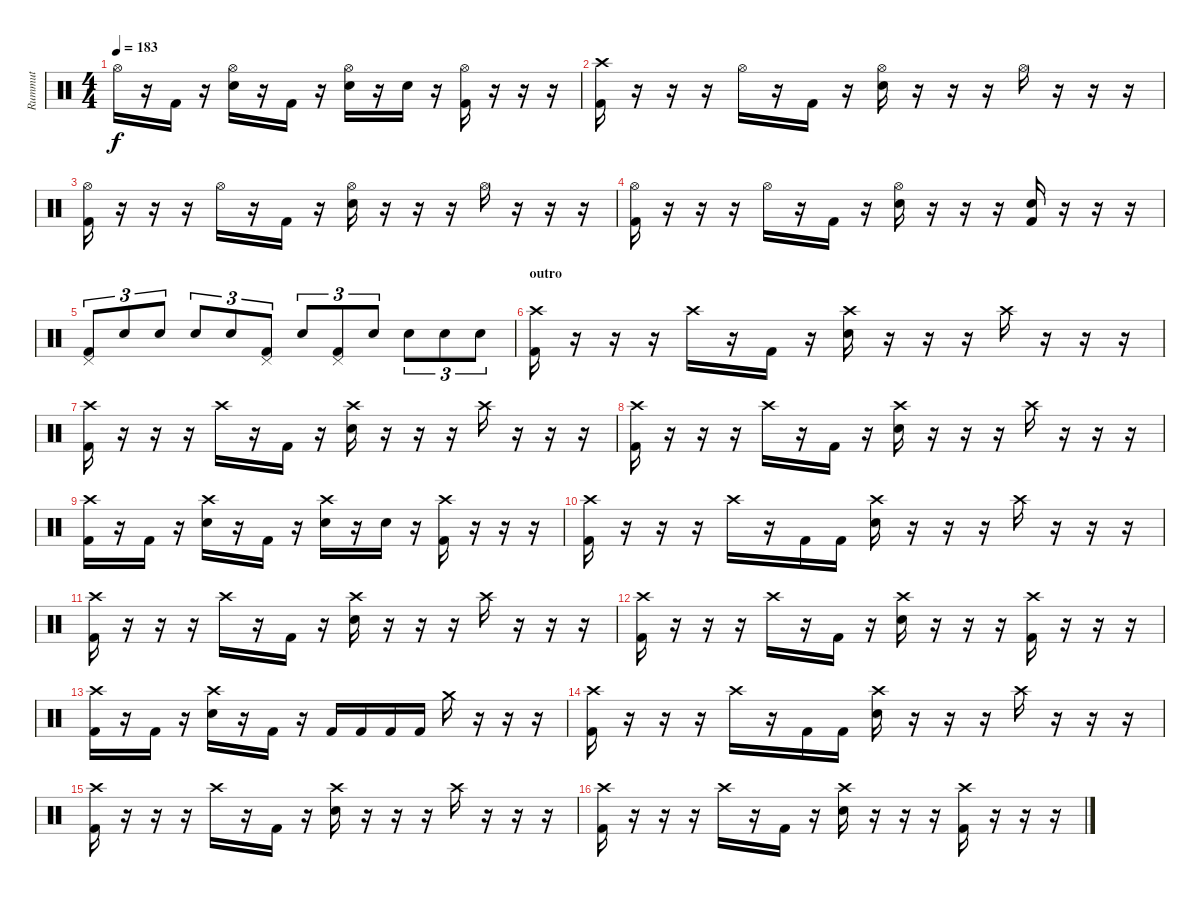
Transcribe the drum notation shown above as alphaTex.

\track ("Rummut" "Rummut") {instrument percussion}
\staff {score}
\articulation defaults
\ts (4 4)
\tempo 183
\clef neutral
\ks c "Hi-Hat (open)".16{dy f}
r.16 "Kick (hit) 2".16 r.16 ("Hi-Hat (open)" "Electric Snare (hit)").16 r.16 "Kick (hit) 2".16 r.16 ("Hi-Hat (open)" "Electric Snare (hit)").16 r.16 "Electric Snare (hit)".16 r.16 ("Hi-Hat (open)" "Kick (hit) 2").16 r.16 r.16 r.16 |
("Crash high (hit)" "Kick (hit) 2").16 r.16 r.16 r.16 "Hi-Hat (open)".16 r.16 "Kick (hit) 2".16 r.16 ("Hi-Hat (open)" "Electric Snare (hit)").16 r.16 r.16 r.16 "Hi-Hat (open)".16 r.16 r.16 r.16 |
("Hi-Hat (open)" "Kick (hit) 2").16 r.16 r.16 r.16 "Hi-Hat (open)".16 r.16 "Kick (hit) 2".16 r.16 ("Hi-Hat (open)" "Electric Snare (hit)").16 r.16 r.16 r.16 "Hi-Hat (open)".16 r.16 r.16 r.16 |
("Hi-Hat (open)" "Kick (hit) 2").16 r.16 r.16 r.16 "Hi-Hat (open)".16 r.16 "Kick (hit) 2".16 r.16 ("Hi-Hat (open)" "Electric Snare (hit)").16 r.16 r.16 r.16 ("Electric Snare (hit)" "Kick (hit) 2").16 r.16 r.16 r.16 |
("Pedal Hi-Hat (hit)" "Kick (hit) 2").8{tu (3 2)} "Electric Snare (hit)".8{tu (3 2)} "Electric Snare (hit)".8{tu (3 2)} "Electric Snare (hit)".8{tu (3 2)} "Electric Snare (hit)".8{tu (3 2)} ("Pedal Hi-Hat (hit)" "Kick (hit) 2").8{tu (3 2)} "Electric Snare (hit)".8{tu (3 2)} ("Pedal Hi-Hat (hit)" "Kick (hit) 2").8{tu (3 2)} "Electric Snare (hit)".8{tu (3 2)} "Electric Snare (hit)".8{tu (3 2)} "Electric Snare (hit)".8{tu (3 2)} "Electric Snare (hit)".8{tu (3 2)} |
\section ("" "outro")
("Crash high (hit)" "Kick (hit) 2").16 r.16 r.16 r.16 "Crash high (hit)".16 r.16 "Kick (hit) 2".16 r.16 ("Crash high (hit)" "Electric Snare (hit)").16 r.16 r.16 r.16 "Crash high (hit)".16 r.16 r.16 r.16 |
("Crash high (hit)" "Kick (hit) 2").16 r.16 r.16 r.16 "Crash high (hit)".16 r.16 "Kick (hit) 2".16 r.16 ("Crash high (hit)" "Electric Snare (hit)").16 r.16 r.16 r.16 "Crash high (hit)".16 r.16 r.16 r.16 |
("Crash high (hit)" "Kick (hit) 2").16 r.16 r.16 r.16 "Crash high (hit)".16 r.16 "Kick (hit) 2".16 r.16 ("Crash high (hit)" "Electric Snare (hit)").16 r.16 r.16 r.16 "Crash high (hit)".16 r.16 r.16 r.16 |
("Crash high (hit)" "Kick (hit) 2").16 r.16 "Kick (hit) 2".16 r.16 ("Crash high (hit)" "Electric Snare (hit)").16 r.16 "Kick (hit) 2".16 r.16 ("Crash high (hit)" "Electric Snare (hit)").16 r.16 "Electric Snare (hit)".16 r.16 ("Crash high (hit)" "Kick (hit) 2").16 r.16 r.16 r.16 |
("Crash high (hit)" "Kick (hit) 2").16 r.16 r.16 r.16 "Crash high (hit)".16 r.16 "Kick (hit) 2".16 "Kick (hit) 2".16 ("Crash high (hit)" "Electric Snare (hit)").16 r.16 r.16 r.16 "Crash high (hit)".16 r.16 r.16 r.16 |
("Crash high (hit)" "Kick (hit) 2").16 r.16 r.16 r.16 "Crash high (hit)".16 r.16 "Kick (hit) 2".16 r.16 ("Crash high (hit)" "Electric Snare (hit)").16 r.16 r.16 r.16 "Crash high (hit)".16 r.16 r.16 r.16 |
("Crash high (hit)" "Kick (hit) 2").16 r.16 r.16 r.16 "Crash high (hit)".16 r.16 "Kick (hit) 2".16 r.16 ("Crash high (hit)" "Electric Snare (hit)").16 r.16 r.16 r.16 ("Crash high (hit)" "Kick (hit) 2").16 r.16 r.16 r.16 |
("Crash high (hit)" "Kick (hit) 2").16 r.16 "Kick (hit) 2".16 r.16 ("Crash high (hit)" "Electric Snare (hit)").16 r.16 "Kick (hit) 2".16 r.16 "Kick (hit) 2".16 "Kick (hit) 2".16 "Kick (hit) 2".16 "Kick (hit) 2".16 "Crash medium (hit)".16 r.16 r.16 r.16 |
("Crash high (hit)" "Kick (hit) 2").16 r.16 r.16 r.16 "Crash high (hit)".16 r.16 "Kick (hit) 2".16 "Kick (hit) 2".16 ("Crash high (hit)" "Electric Snare (hit)").16 r.16 r.16 r.16 "Crash high (hit)".16 r.16 r.16 r.16 |
("Crash high (hit)" "Kick (hit) 2").16 r.16 r.16 r.16 "Crash high (hit)".16 r.16 "Kick (hit) 2".16 r.16 ("Crash high (hit)" "Electric Snare (hit)").16 r.16 r.16 r.16 "Crash high (hit)".16 r.16 r.16 r.16 |
("Crash high (hit)" "Kick (hit) 2").16 r.16 r.16 r.16 "Crash high (hit)".16 r.16 "Kick (hit) 2".16 r.16 ("Crash high (hit)" "Electric Snare (hit)").16 r.16 r.16 r.16 ("Crash high (hit)" "Kick (hit) 2").16 r.16 r.16 r.16
